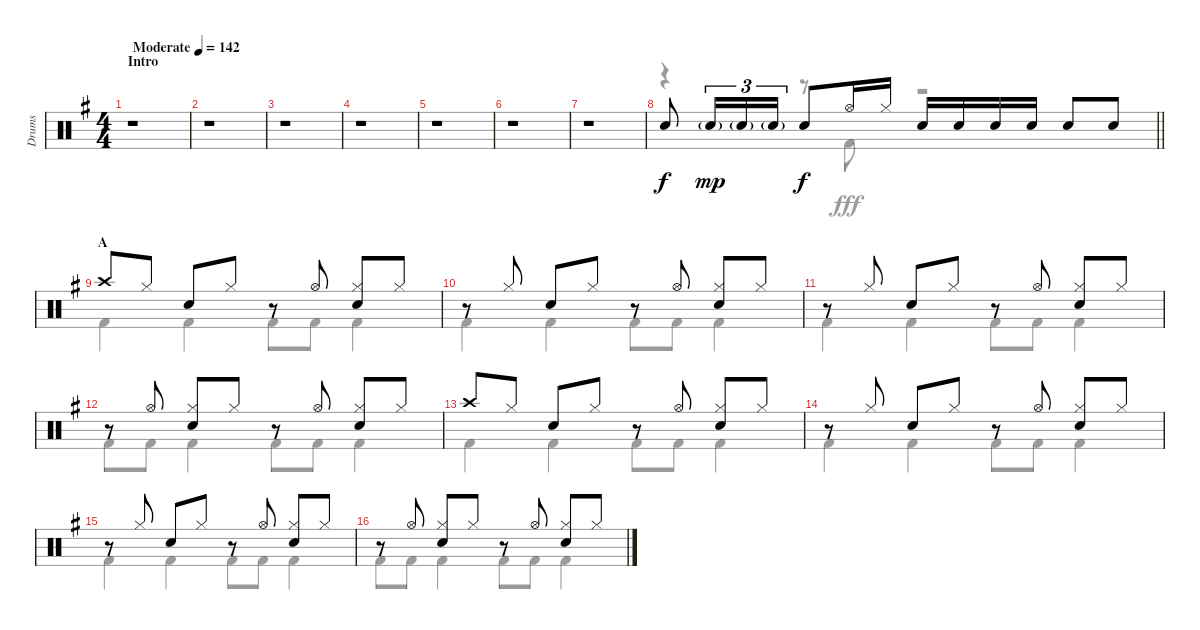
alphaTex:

\track ("Drums" "Drums") {instrument percussion}
\staff {score}
\articulation defaults
\voice
\ts (4 4)
\section ("" "Intro")
\tempo (142 "Moderate")
\clef neutral
\ks g
r.1{dy f} |
r.1 |
r.1 |
r.1 |
r.1 |
r.1 |
r.1 |
\barLineRight lightlight "Snare (hit) 2".8 "Snare (hit) 2"{g}.16{tu (3 2) dy mp} "Snare (hit) 2"{g}.16{tu (3 2)} "Snare (hit) 2"{g}.16{tu (3 2)} "Snare (hit) 2".8{dy f} "Hi-Hat (open)".16 "Hi-Hat (closed)".16 "Snare (hit) 2".16 "Snare (hit) 2".16 "Snare (hit) 2".16 "Snare (hit) 2".16 "Snare (hit) 2".8 "Snare (hit) 2".8
|
\section ("" "A")
"Crash high (hit)".8 "Hi-Hat (closed)".8 "Snare (hit) 2".8 "Hi-Hat (closed)".8 r.8 "Hi-Hat (open)".8 ("Hi-Hat (closed)" "Snare (hit) 2").8 "Hi-Hat (closed)".8 |
r.8 "Hi-Hat (closed)".8 "Snare (hit) 2".8 "Hi-Hat (closed)".8 r.8 "Hi-Hat (open)".8 ("Hi-Hat (closed)" "Snare (hit) 2").8 "Hi-Hat (closed)".8 |
r.8 "Hi-Hat (closed)".8 "Snare (hit) 2".8 "Hi-Hat (closed)".8 r.8 "Hi-Hat (open)".8 ("Hi-Hat (closed)" "Snare (hit) 2").8 "Hi-Hat (closed)".8 |
r.8 "Hi-Hat (open)".8 ("Hi-Hat (closed)" "Snare (hit) 2").8 "Hi-Hat (closed)".8 r.8 "Hi-Hat (open)".8 ("Hi-Hat (closed)" "Snare (hit) 2").8 "Hi-Hat (closed)".8 |
"Crash high (hit)".8 "Hi-Hat (closed)".8 "Snare (hit) 2".8 "Hi-Hat (closed)".8 r.8 "Hi-Hat (open)".8 ("Hi-Hat (closed)" "Snare (hit) 2").8 "Hi-Hat (closed)".8 |
r.8 "Hi-Hat (closed)".8 "Snare (hit) 2".8 "Hi-Hat (closed)".8 r.8 "Hi-Hat (open)".8 ("Hi-Hat (closed)" "Snare (hit) 2").8 "Hi-Hat (closed)".8 |
r.8 "Hi-Hat (closed)".8 "Snare (hit) 2".8 "Hi-Hat (closed)".8 r.8 "Hi-Hat (open)".8 ("Hi-Hat (closed)" "Snare (hit) 2").8 "Hi-Hat (closed)".8 |
r.8 "Hi-Hat (open)".8 ("Hi-Hat (closed)" "Snare (hit) 2").8 "Hi-Hat (closed)".8 r.8 "Hi-Hat (open)".8 ("Hi-Hat (closed)" "Snare (hit) 2").8 "Hi-Hat (closed)".8
\voice
\clef neutral
\ottava regular
\simile none
\ks g
r.1{dy fff} |
r.1 |
r.1 |
r.1 |
r.1 |
r.1 |
r.1 |
\barLineRight lightlight
r.4 r.8 "Kick (hit) 2".8 r.2 |
"Kick (hit) 2".4 "Kick (hit) 2".4 "Kick (hit) 2".8 "Kick (hit) 2".8 "Kick (hit) 2".4 |
"Kick (hit) 2".4 "Kick (hit) 2".4 "Kick (hit) 2".8 "Kick (hit) 2".8 "Kick (hit) 2".4 |
"Kick (hit) 2".4 "Kick (hit) 2".4 "Kick (hit) 2".8 "Kick (hit) 2".8 "Kick (hit) 2".4 |
"Kick (hit) 2".8 "Kick (hit) 2".8 "Kick (hit) 2".4 "Kick (hit) 2".8 "Kick (hit) 2".8 "Kick (hit) 2".4 |
"Kick (hit) 2".4 "Kick (hit) 2".4 "Kick (hit) 2".8 "Kick (hit) 2".8 "Kick (hit) 2".4 |
"Kick (hit) 2".4 "Kick (hit) 2".4 "Kick (hit) 2".8 "Kick (hit) 2".8 "Kick (hit) 2".4 |
"Kick (hit) 2".4 "Kick (hit) 2".4 "Kick (hit) 2".8 "Kick (hit) 2".8 "Kick (hit) 2".4 |
"Kick (hit) 2".8 "Kick (hit) 2".8 "Kick (hit) 2".4 "Kick (hit) 2".8 "Kick (hit) 2".8 "Kick (hit) 2".4
